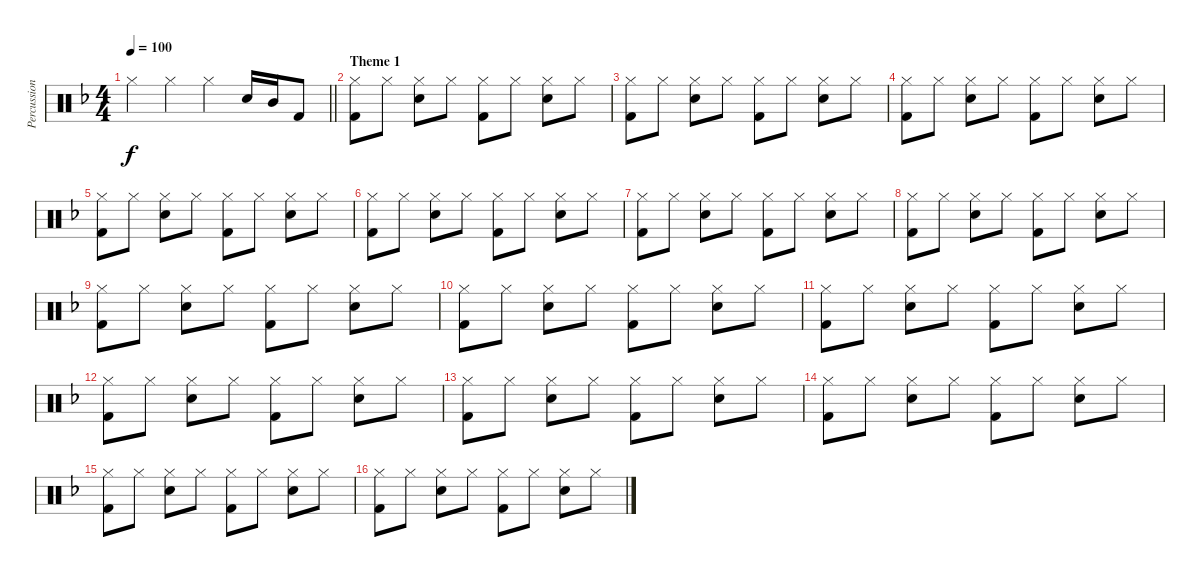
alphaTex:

\track ("Percussion" "Percussion") {instrument percussion}
\staff {score}
\articulation defaults
\ts (4 4)
\tempo 100
\clef neutral
\barLineRight lightlight
\ks f "Hi-Hat (closed)".4{dy f} "Hi-Hat (closed)".4 "Hi-Hat (closed)".4 "Snare (hit) 2".16 "Mid Tom (hit)".16 "Kick (hit) 2".8
|
\section ("" "Theme 1")
("Kick (hit) 2" "Hi-Hat (closed)").8 "Hi-Hat (closed)".8 ("Hi-Hat (closed)" "Snare (hit) 2").8 "Hi-Hat (closed)".8 ("Kick (hit) 2" "Hi-Hat (closed)").8 "Hi-Hat (closed)".8 ("Hi-Hat (closed)" "Snare (hit) 2").8 "Hi-Hat (closed)".8 |
("Kick (hit) 2" "Hi-Hat (closed)").8 "Hi-Hat (closed)".8 ("Hi-Hat (closed)" "Snare (hit) 2").8 "Hi-Hat (closed)".8 ("Kick (hit) 2" "Hi-Hat (closed)").8 "Hi-Hat (closed)".8 ("Hi-Hat (closed)" "Snare (hit) 2").8 "Hi-Hat (closed)".8 |
("Kick (hit) 2" "Hi-Hat (closed)").8 "Hi-Hat (closed)".8 ("Hi-Hat (closed)" "Snare (hit) 2").8 "Hi-Hat (closed)".8 ("Kick (hit) 2" "Hi-Hat (closed)").8 "Hi-Hat (closed)".8 ("Hi-Hat (closed)" "Snare (hit) 2").8 "Hi-Hat (closed)".8 |
("Kick (hit) 2" "Hi-Hat (closed)").8 "Hi-Hat (closed)".8 ("Hi-Hat (closed)" "Snare (hit) 2").8 "Hi-Hat (closed)".8 ("Kick (hit) 2" "Hi-Hat (closed)").8 "Hi-Hat (closed)".8 ("Hi-Hat (closed)" "Snare (hit) 2").8 "Hi-Hat (closed)".8 |
("Kick (hit) 2" "Hi-Hat (closed)").8 "Hi-Hat (closed)".8 ("Hi-Hat (closed)" "Snare (hit) 2").8 "Hi-Hat (closed)".8 ("Kick (hit) 2" "Hi-Hat (closed)").8 "Hi-Hat (closed)".8 ("Hi-Hat (closed)" "Snare (hit) 2").8 "Hi-Hat (closed)".8 |
("Kick (hit) 2" "Hi-Hat (closed)").8 "Hi-Hat (closed)".8 ("Hi-Hat (closed)" "Snare (hit) 2").8 "Hi-Hat (closed)".8 ("Kick (hit) 2" "Hi-Hat (closed)").8 "Hi-Hat (closed)".8 ("Hi-Hat (closed)" "Snare (hit) 2").8 "Hi-Hat (closed)".8 |
("Kick (hit) 2" "Hi-Hat (closed)").8 "Hi-Hat (closed)".8 ("Hi-Hat (closed)" "Snare (hit) 2").8 "Hi-Hat (closed)".8 ("Kick (hit) 2" "Hi-Hat (closed)").8 "Hi-Hat (closed)".8 ("Hi-Hat (closed)" "Snare (hit) 2").8 "Hi-Hat (closed)".8 |
("Kick (hit) 2" "Hi-Hat (closed)").8 "Hi-Hat (closed)".8 ("Hi-Hat (closed)" "Snare (hit) 2").8 "Hi-Hat (closed)".8 ("Kick (hit) 2" "Hi-Hat (closed)").8 "Hi-Hat (closed)".8 ("Hi-Hat (closed)" "Snare (hit) 2").8 "Hi-Hat (closed)".8 |
("Kick (hit) 2" "Hi-Hat (closed)").8 "Hi-Hat (closed)".8 ("Hi-Hat (closed)" "Snare (hit) 2").8 "Hi-Hat (closed)".8 ("Kick (hit) 2" "Hi-Hat (closed)").8 "Hi-Hat (closed)".8 ("Hi-Hat (closed)" "Snare (hit) 2").8 "Hi-Hat (closed)".8 |
("Kick (hit) 2" "Hi-Hat (closed)").8 "Hi-Hat (closed)".8 ("Hi-Hat (closed)" "Snare (hit) 2").8 "Hi-Hat (closed)".8 ("Kick (hit) 2" "Hi-Hat (closed)").8 "Hi-Hat (closed)".8 ("Hi-Hat (closed)" "Snare (hit) 2").8 "Hi-Hat (closed)".8 |
("Kick (hit) 2" "Hi-Hat (closed)").8 "Hi-Hat (closed)".8 ("Hi-Hat (closed)" "Snare (hit) 2").8 "Hi-Hat (closed)".8 ("Kick (hit) 2" "Hi-Hat (closed)").8 "Hi-Hat (closed)".8 ("Hi-Hat (closed)" "Snare (hit) 2").8 "Hi-Hat (closed)".8 |
("Kick (hit) 2" "Hi-Hat (closed)").8 "Hi-Hat (closed)".8 ("Hi-Hat (closed)" "Snare (hit) 2").8 "Hi-Hat (closed)".8 ("Kick (hit) 2" "Hi-Hat (closed)").8 "Hi-Hat (closed)".8 ("Hi-Hat (closed)" "Snare (hit) 2").8 "Hi-Hat (closed)".8 |
("Kick (hit) 2" "Hi-Hat (closed)").8 "Hi-Hat (closed)".8 ("Hi-Hat (closed)" "Snare (hit) 2").8 "Hi-Hat (closed)".8 ("Kick (hit) 2" "Hi-Hat (closed)").8 "Hi-Hat (closed)".8 ("Hi-Hat (closed)" "Snare (hit) 2").8 "Hi-Hat (closed)".8 |
("Kick (hit) 2" "Hi-Hat (closed)").8 "Hi-Hat (closed)".8 ("Hi-Hat (closed)" "Snare (hit) 2").8 "Hi-Hat (closed)".8 ("Kick (hit) 2" "Hi-Hat (closed)").8 "Hi-Hat (closed)".8 ("Hi-Hat (closed)" "Snare (hit) 2").8 "Hi-Hat (closed)".8 |
("Kick (hit) 2" "Hi-Hat (closed)").8 "Hi-Hat (closed)".8 ("Hi-Hat (closed)" "Snare (hit) 2").8 "Hi-Hat (closed)".8 ("Kick (hit) 2" "Hi-Hat (closed)").8 "Hi-Hat (closed)".8 ("Hi-Hat (closed)" "Snare (hit) 2").8 "Hi-Hat (closed)".8
